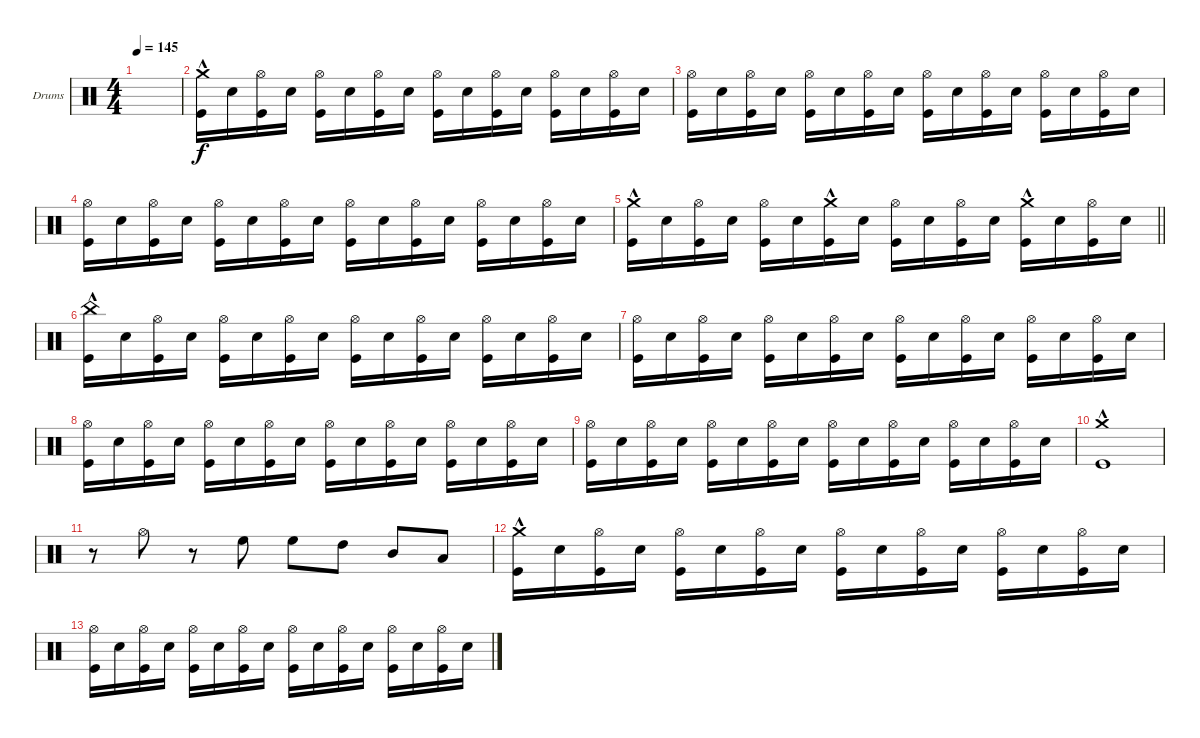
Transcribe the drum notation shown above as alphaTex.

\defaultSystemsLayout 4
\bracketExtendMode groupsimilarinstruments
\firstSystemTrackNameOrientation horizontal
\otherSystemsTrackNameOrientation horizontal
\track ("Drumkit" "Drums") {instrument percussion}
\staff {score}
\articulation defaults
\ts (4 4)
\tempo 145
\clef neutral
\ks c
|
("Kick (hit)" "Crash medium (hit)"{hac}).16 "Snare (hit) 2".16 ("Kick (hit)" "Hi-Hat (open)").16 "Snare (hit) 2".16 ("Kick (hit)" "Hi-Hat (open)").16 "Snare (hit) 2".16 ("Kick (hit)" "Hi-Hat (open)").16 "Snare (hit) 2".16 ("Kick (hit)" "Hi-Hat (open)").16 "Snare (hit) 2".16 ("Kick (hit)" "Hi-Hat (open)").16 "Snare (hit) 2".16 ("Kick (hit)" "Hi-Hat (open)").16 "Snare (hit) 2".16 ("Kick (hit)" "Hi-Hat (open)").16 "Snare (hit) 2".16 |
("Kick (hit)" "Hi-Hat (open)").16 "Snare (hit) 2".16 ("Kick (hit)" "Hi-Hat (open)").16 "Snare (hit) 2".16 ("Kick (hit)" "Hi-Hat (open)").16 "Snare (hit) 2".16 ("Kick (hit)" "Hi-Hat (open)").16 "Snare (hit) 2".16 ("Kick (hit)" "Hi-Hat (open)").16 "Snare (hit) 2".16 ("Kick (hit)" "Hi-Hat (open)").16 "Snare (hit) 2".16 ("Kick (hit)" "Hi-Hat (open)").16 "Snare (hit) 2".16 ("Kick (hit)" "Hi-Hat (open)").16 "Snare (hit) 2".16 |
("Kick (hit)" "Hi-Hat (open)").16 "Snare (hit) 2".16 ("Kick (hit)" "Hi-Hat (open)").16 "Snare (hit) 2".16 ("Kick (hit)" "Hi-Hat (open)").16 "Snare (hit) 2".16 ("Kick (hit)" "Hi-Hat (open)").16 "Snare (hit) 2".16 ("Kick (hit)" "Hi-Hat (open)").16 "Snare (hit) 2".16 ("Kick (hit)" "Hi-Hat (open)").16 "Snare (hit) 2".16 ("Kick (hit)" "Hi-Hat (open)").16 "Snare (hit) 2".16 ("Kick (hit)" "Hi-Hat (open)").16 "Snare (hit) 2".16 |
\barLineRight lightlight
("Kick (hit)" "Crash medium (hit)"{hac}).16 "Snare (hit) 2".16 ("Kick (hit)" "Hi-Hat (open)").16 "Snare (hit) 2".16 ("Kick (hit)" "Hi-Hat (open)").16 "Snare (hit) 2".16 ("Kick (hit)" "Crash medium (hit)"{hac}).16 "Snare (hit) 2".16 ("Kick (hit)" "Hi-Hat (open)").16 "Snare (hit) 2".16 ("Kick (hit)" "Hi-Hat (open)").16 "Snare (hit) 2".16 ("Kick (hit)" "Crash medium (hit)"{hac}).16 "Snare (hit) 2".16 ("Kick (hit)" "Hi-Hat (open)").16 "Snare (hit) 2".16 |
("Kick (hit)" "China (hit)"{hac}).16 "Snare (hit) 2".16 ("Kick (hit)" "Hi-Hat (open)").16 "Snare (hit) 2".16 ("Kick (hit)" "Hi-Hat (open)").16 "Snare (hit) 2".16 ("Kick (hit)" "Hi-Hat (open)").16 "Snare (hit) 2".16 ("Kick (hit)" "Hi-Hat (open)").16 "Snare (hit) 2".16 ("Kick (hit)" "Hi-Hat (open)").16 "Snare (hit) 2".16 ("Kick (hit)" "Hi-Hat (open)").16 "Snare (hit) 2".16 ("Kick (hit)" "Hi-Hat (open)").16 "Snare (hit) 2".16 |
("Kick (hit)" "Hi-Hat (open)").16 "Snare (hit) 2".16 ("Kick (hit)" "Hi-Hat (open)").16 "Snare (hit) 2".16 ("Kick (hit)" "Hi-Hat (open)").16 "Snare (hit) 2".16 ("Kick (hit)" "Hi-Hat (open)").16 "Snare (hit) 2".16 ("Kick (hit)" "Hi-Hat (open)").16 "Snare (hit) 2".16 ("Kick (hit)" "Hi-Hat (open)").16 "Snare (hit) 2".16 ("Kick (hit)" "Hi-Hat (open)").16 "Snare (hit) 2".16 ("Kick (hit)" "Hi-Hat (open)").16 "Snare (hit) 2".16 |
("Kick (hit)" "Hi-Hat (open)").16 "Snare (hit) 2".16 ("Kick (hit)" "Hi-Hat (open)").16 "Snare (hit) 2".16 ("Kick (hit)" "Hi-Hat (open)").16 "Snare (hit) 2".16 ("Kick (hit)" "Hi-Hat (open)").16 "Snare (hit) 2".16 ("Kick (hit)" "Hi-Hat (open)").16 "Snare (hit) 2".16 ("Kick (hit)" "Hi-Hat (open)").16 "Snare (hit) 2".16 ("Kick (hit)" "Hi-Hat (open)").16 "Snare (hit) 2".16 ("Kick (hit)" "Hi-Hat (open)").16 "Snare (hit) 2".16 |
("Kick (hit)" "Hi-Hat (open)").16 "Snare (hit) 2".16 ("Kick (hit)" "Hi-Hat (open)").16 "Snare (hit) 2".16 ("Kick (hit)" "Hi-Hat (open)").16 "Snare (hit) 2".16 ("Kick (hit)" "Hi-Hat (open)").16 "Snare (hit) 2".16 ("Kick (hit)" "Hi-Hat (open)").16 "Snare (hit) 2".16 ("Kick (hit)" "Hi-Hat (open)").16 "Snare (hit) 2".16 ("Kick (hit)" "Hi-Hat (open)").16 "Snare (hit) 2".16 ("Kick (hit)" "Hi-Hat (open)").16 "Snare (hit) 2".16 |
("Kick (hit)" "Crash medium (hit)"{hac}).1 |
r.8 "Hi-Hat (open)".8 r.8 "High Floor Tom (hit)".8 "High Floor Tom (hit)".8 "High Tom (hit)".8 "Mid Tom (hit)".8 "Low Tom (hit)".8 |
("Kick (hit)" "Crash medium (hit)"{hac}).16 "Snare (hit) 2".16 ("Kick (hit)" "Hi-Hat (open)").16 "Snare (hit) 2".16 ("Kick (hit)" "Hi-Hat (open)").16 "Snare (hit) 2".16 ("Kick (hit)" "Hi-Hat (open)").16 "Snare (hit) 2".16 ("Kick (hit)" "Hi-Hat (open)").16 "Snare (hit) 2".16 ("Kick (hit)" "Hi-Hat (open)").16 "Snare (hit) 2".16 ("Kick (hit)" "Hi-Hat (open)").16 "Snare (hit) 2".16 ("Kick (hit)" "Hi-Hat (open)").16 "Snare (hit) 2".16 |
("Kick (hit)" "Hi-Hat (open)").16 "Snare (hit) 2".16 ("Kick (hit)" "Hi-Hat (open)").16 "Snare (hit) 2".16 ("Kick (hit)" "Hi-Hat (open)").16 "Snare (hit) 2".16 ("Kick (hit)" "Hi-Hat (open)").16 "Snare (hit) 2".16 ("Kick (hit)" "Hi-Hat (open)").16 "Snare (hit) 2".16 ("Kick (hit)" "Hi-Hat (open)").16 "Snare (hit) 2".16 ("Kick (hit)" "Hi-Hat (open)").16 "Snare (hit) 2".16 ("Kick (hit)" "Hi-Hat (open)").16 "Snare (hit) 2".16
